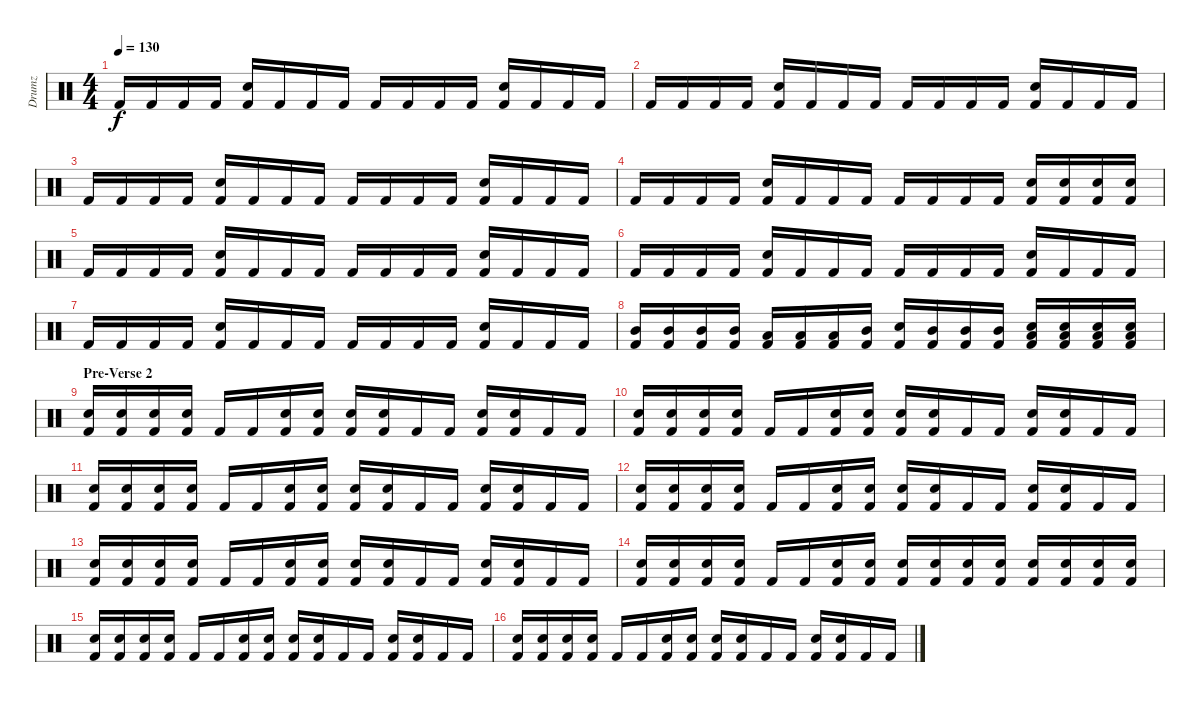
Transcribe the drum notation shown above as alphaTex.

\track ("Drumz" "Drumz") {instrument percussion}
\staff {score}
\articulation defaults
\ts (4 4)
\tempo 130
\clef neutral
\ks c "Kick (hit) 2".16{dy f} "Kick (hit) 2".16 "Kick (hit) 2".16 "Kick (hit) 2".16
("Snare (hit) 2" "Kick (hit) 2").16 "Kick (hit) 2".16 "Kick (hit) 2".16 "Kick (hit) 2".16 "Kick (hit) 2".16 "Kick (hit) 2".16 "Kick (hit) 2".16 "Kick (hit) 2".16 ("Snare (hit) 2" "Kick (hit) 2").16 "Kick (hit) 2".16 "Kick (hit) 2".16 "Kick (hit) 2".16 |
"Kick (hit) 2".16 "Kick (hit) 2".16 "Kick (hit) 2".16 "Kick (hit) 2".16 ("Snare (hit) 2" "Kick (hit) 2").16 "Kick (hit) 2".16 "Kick (hit) 2".16 "Kick (hit) 2".16 "Kick (hit) 2".16 "Kick (hit) 2".16 "Kick (hit) 2".16 "Kick (hit) 2".16 ("Snare (hit) 2" "Kick (hit) 2").16 "Kick (hit) 2".16 "Kick (hit) 2".16 "Kick (hit) 2".16 |
"Kick (hit) 2".16 "Kick (hit) 2".16 "Kick (hit) 2".16 "Kick (hit) 2".16 ("Snare (hit) 2" "Kick (hit) 2").16 "Kick (hit) 2".16 "Kick (hit) 2".16 "Kick (hit) 2".16 "Kick (hit) 2".16 "Kick (hit) 2".16 "Kick (hit) 2".16 "Kick (hit) 2".16 ("Snare (hit) 2" "Kick (hit) 2").16 "Kick (hit) 2".16 "Kick (hit) 2".16 "Kick (hit) 2".16 |
"Kick (hit) 2".16 "Kick (hit) 2".16 "Kick (hit) 2".16 "Kick (hit) 2".16 ("Snare (hit) 2" "Kick (hit) 2").16 "Kick (hit) 2".16 "Kick (hit) 2".16 "Kick (hit) 2".16 "Kick (hit) 2".16 "Kick (hit) 2".16 "Kick (hit) 2".16 "Kick (hit) 2".16 ("Snare (hit) 2" "Kick (hit) 2").16 ("Snare (hit) 2" "Kick (hit) 2").16 ("Snare (hit) 2" "Kick (hit) 2").16 ("Snare (hit) 2" "Kick (hit) 2").16 |
"Kick (hit) 2".16 "Kick (hit) 2".16 "Kick (hit) 2".16 "Kick (hit) 2".16 ("Snare (hit) 2" "Kick (hit) 2").16 "Kick (hit) 2".16 "Kick (hit) 2".16 "Kick (hit) 2".16 "Kick (hit) 2".16 "Kick (hit) 2".16 "Kick (hit) 2".16 "Kick (hit) 2".16 ("Snare (hit) 2" "Kick (hit) 2").16 "Kick (hit) 2".16 "Kick (hit) 2".16 "Kick (hit) 2".16 |
"Kick (hit) 2".16 "Kick (hit) 2".16 "Kick (hit) 2".16 "Kick (hit) 2".16 ("Snare (hit) 2" "Kick (hit) 2").16 "Kick (hit) 2".16 "Kick (hit) 2".16 "Kick (hit) 2".16 "Kick (hit) 2".16 "Kick (hit) 2".16 "Kick (hit) 2".16 "Kick (hit) 2".16 ("Snare (hit) 2" "Kick (hit) 2").16 "Kick (hit) 2".16 "Kick (hit) 2".16 "Kick (hit) 2".16 |
"Kick (hit) 2".16 "Kick (hit) 2".16 "Kick (hit) 2".16 "Kick (hit) 2".16 ("Snare (hit) 2" "Kick (hit) 2").16 "Kick (hit) 2".16 "Kick (hit) 2".16 "Kick (hit) 2".16 "Kick (hit) 2".16 "Kick (hit) 2".16 "Kick (hit) 2".16 "Kick (hit) 2".16 ("Snare (hit) 2" "Kick (hit) 2").16 "Kick (hit) 2".16 "Kick (hit) 2".16 "Kick (hit) 2".16 |
("Mid Tom (hit)" "Kick (hit) 2").16 ("Mid Tom (hit)" "Kick (hit) 2").16 ("Mid Tom (hit)" "Kick (hit) 2").16 ("Mid Tom (hit)" "Kick (hit) 2").16 ("Low Tom (hit)" "Kick (hit) 2").16 ("Low Tom (hit)" "Kick (hit) 2").16 ("Low Tom (hit)" "Kick (hit) 2").16 ("Mid Tom (hit)" "Kick (hit) 2").16 ("Snare (hit) 2" "Kick (hit) 2").16 ("Mid Tom (hit)" "Kick (hit) 2").16 ("Mid Tom (hit)" "Kick (hit) 2").16 ("Mid Tom (hit)" "Kick (hit) 2").16 ("Low Tom (hit)" "Snare (hit) 2" "Kick (hit) 2").16 ("Low Tom (hit)" "Snare (hit) 2" "Kick (hit) 2").16 ("Low Tom (hit)" "Snare (hit) 2" "Kick (hit) 2").16 ("Low Tom (hit)" "Snare (hit) 2" "Kick (hit) 2").16 |
\section ("" "Pre-Verse 2")
("Snare (hit) 2" "Kick (hit) 2").16 ("Snare (hit) 2" "Kick (hit) 2").16 ("Snare (hit) 2" "Kick (hit) 2").16 ("Snare (hit) 2" "Kick (hit) 2").16 "Kick (hit) 2".16 "Kick (hit) 2".16 ("Snare (hit) 2" "Kick (hit) 2").16 ("Snare (hit) 2" "Kick (hit) 2").16 ("Snare (hit) 2" "Kick (hit) 2").16 ("Snare (hit) 2" "Kick (hit) 2").16 "Kick (hit) 2".16 "Kick (hit) 2".16 ("Snare (hit) 2" "Kick (hit) 2").16 ("Snare (hit) 2" "Kick (hit) 2").16 "Kick (hit) 2".16 "Kick (hit) 2".16 |
("Snare (hit) 2" "Kick (hit) 2").16 ("Snare (hit) 2" "Kick (hit) 2").16 ("Snare (hit) 2" "Kick (hit) 2").16 ("Snare (hit) 2" "Kick (hit) 2").16 "Kick (hit) 2".16 "Kick (hit) 2".16 ("Snare (hit) 2" "Kick (hit) 2").16 ("Snare (hit) 2" "Kick (hit) 2").16 ("Snare (hit) 2" "Kick (hit) 2").16 ("Snare (hit) 2" "Kick (hit) 2").16 "Kick (hit) 2".16 "Kick (hit) 2".16 ("Snare (hit) 2" "Kick (hit) 2").16 ("Snare (hit) 2" "Kick (hit) 2").16 "Kick (hit) 2".16 "Kick (hit) 2".16 |
("Snare (hit) 2" "Kick (hit) 2").16 ("Snare (hit) 2" "Kick (hit) 2").16 ("Snare (hit) 2" "Kick (hit) 2").16 ("Snare (hit) 2" "Kick (hit) 2").16 "Kick (hit) 2".16 "Kick (hit) 2".16 ("Snare (hit) 2" "Kick (hit) 2").16 ("Snare (hit) 2" "Kick (hit) 2").16 ("Snare (hit) 2" "Kick (hit) 2").16 ("Snare (hit) 2" "Kick (hit) 2").16 "Kick (hit) 2".16 "Kick (hit) 2".16 ("Snare (hit) 2" "Kick (hit) 2").16 ("Snare (hit) 2" "Kick (hit) 2").16 "Kick (hit) 2".16 "Kick (hit) 2".16 |
("Snare (hit) 2" "Kick (hit) 2").16 ("Snare (hit) 2" "Kick (hit) 2").16 ("Snare (hit) 2" "Kick (hit) 2").16 ("Snare (hit) 2" "Kick (hit) 2").16 "Kick (hit) 2".16 "Kick (hit) 2".16 ("Snare (hit) 2" "Kick (hit) 2").16 ("Snare (hit) 2" "Kick (hit) 2").16 ("Snare (hit) 2" "Kick (hit) 2").16 ("Snare (hit) 2" "Kick (hit) 2").16 "Kick (hit) 2".16 "Kick (hit) 2".16 ("Snare (hit) 2" "Kick (hit) 2").16 ("Snare (hit) 2" "Kick (hit) 2").16 "Kick (hit) 2".16 "Kick (hit) 2".16 |
("Snare (hit) 2" "Kick (hit) 2").16 ("Snare (hit) 2" "Kick (hit) 2").16 ("Snare (hit) 2" "Kick (hit) 2").16 ("Snare (hit) 2" "Kick (hit) 2").16 "Kick (hit) 2".16 "Kick (hit) 2".16 ("Snare (hit) 2" "Kick (hit) 2").16 ("Snare (hit) 2" "Kick (hit) 2").16 ("Snare (hit) 2" "Kick (hit) 2").16 ("Snare (hit) 2" "Kick (hit) 2").16 "Kick (hit) 2".16 "Kick (hit) 2".16 ("Snare (hit) 2" "Kick (hit) 2").16 ("Snare (hit) 2" "Kick (hit) 2").16 "Kick (hit) 2".16 "Kick (hit) 2".16 |
("Snare (hit) 2" "Kick (hit) 2").16 ("Snare (hit) 2" "Kick (hit) 2").16 ("Snare (hit) 2" "Kick (hit) 2").16 ("Snare (hit) 2" "Kick (hit) 2").16 "Kick (hit) 2".16 "Kick (hit) 2".16 ("Snare (hit) 2" "Kick (hit) 2").16 ("Snare (hit) 2" "Kick (hit) 2").16 ("Snare (hit) 2" "Kick (hit) 2").16 ("Snare (hit) 2" "Kick (hit) 2").16 ("Snare (hit) 2" "Kick (hit) 2").16 ("Snare (hit) 2" "Kick (hit) 2").16 ("Snare (hit) 2" "Kick (hit) 2").16 ("Snare (hit) 2" "Kick (hit) 2").16 ("Snare (hit) 2" "Kick (hit) 2").16 ("Snare (hit) 2" "Kick (hit) 2").16 |
("Snare (hit) 2" "Kick (hit) 2").16 ("Snare (hit) 2" "Kick (hit) 2").16 ("Snare (hit) 2" "Kick (hit) 2").16 ("Snare (hit) 2" "Kick (hit) 2").16 "Kick (hit) 2".16 "Kick (hit) 2".16 ("Snare (hit) 2" "Kick (hit) 2").16 ("Snare (hit) 2" "Kick (hit) 2").16 ("Snare (hit) 2" "Kick (hit) 2").16 ("Snare (hit) 2" "Kick (hit) 2").16 "Kick (hit) 2".16 "Kick (hit) 2".16 ("Snare (hit) 2" "Kick (hit) 2").16 ("Snare (hit) 2" "Kick (hit) 2").16 "Kick (hit) 2".16 "Kick (hit) 2".16 |
("Snare (hit) 2" "Kick (hit) 2").16 ("Snare (hit) 2" "Kick (hit) 2").16 ("Snare (hit) 2" "Kick (hit) 2").16 ("Snare (hit) 2" "Kick (hit) 2").16 "Kick (hit) 2".16 "Kick (hit) 2".16 ("Snare (hit) 2" "Kick (hit) 2").16 ("Snare (hit) 2" "Kick (hit) 2").16 ("Snare (hit) 2" "Kick (hit) 2").16 ("Snare (hit) 2" "Kick (hit) 2").16 "Kick (hit) 2".16 "Kick (hit) 2".16 ("Snare (hit) 2" "Kick (hit) 2").16 ("Snare (hit) 2" "Kick (hit) 2").16 "Kick (hit) 2".16 "Kick (hit) 2".16
